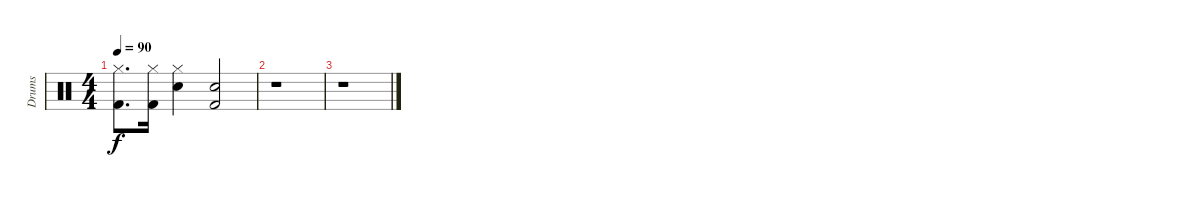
\track ("Drums" "Drums") {instrument percussion}
\staff {score}
\articulation defaults
\ts (4 4)
\tempo 90
\clef neutral
\ks c
("Hi-Hat (closed)" "Kick (hit) 2").8{d dy f} ("Hi-Hat (closed)" "Kick (hit) 2").16 ("Hi-Hat (closed)" "Snare (hit) 2").4 ("Snare (hit) 2" "Kick (hit) 2").2 |
r.1 |
r.1
